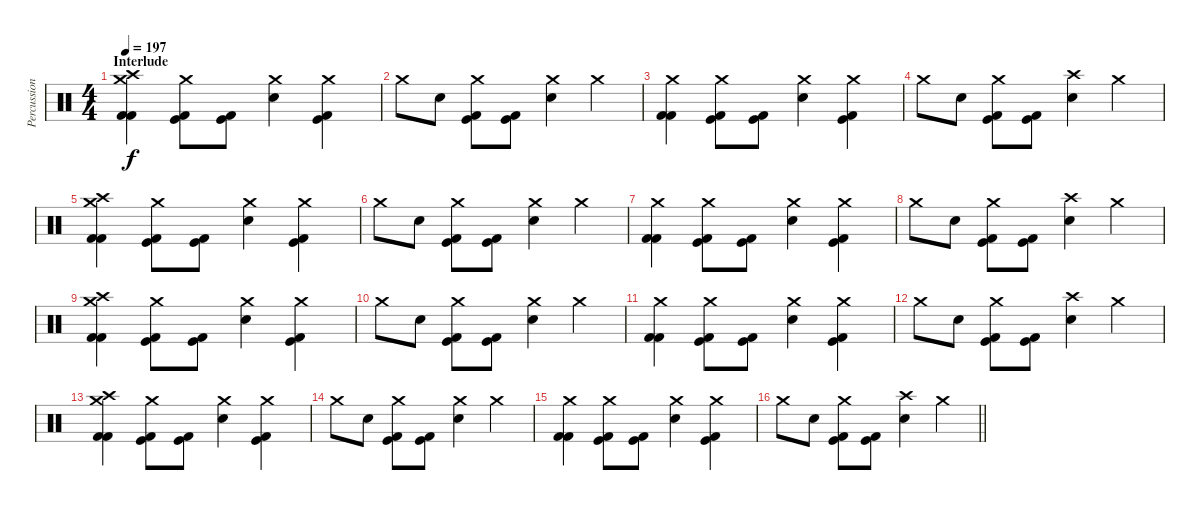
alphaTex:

\track ("Percussion" "Percussion") {instrument percussion}
\staff {score}
\articulation defaults
\ts (4 4)
\section ("" "Interlude")
\tempo 197
\clef neutral
\ks c
("Crash high (hit)" "Crash medium (hit)" "Kick (hit) 2" "Kick (hit) 2").4{dy f} ("Crash medium (hit)" "Kick (hit)" "Kick (hit) 2").8 ("Kick (hit)" "Kick (hit) 2").8 ("Crash medium (hit)" "Electric Snare (hit)").4 ("Crash medium (hit)" "Kick (hit)" "Kick (hit) 2").4 |
"Crash medium (hit)".8 "Electric Snare (hit)".8 ("Crash medium (hit)" "Kick (hit)" "Kick (hit) 2").8 ("Kick (hit)" "Kick (hit) 2").8 ("Crash medium (hit)" "Electric Snare (hit)").4 "Crash medium (hit)".4 |
("Crash medium (hit)" "Kick (hit) 2" "Kick (hit) 2").4 ("Crash medium (hit)" "Kick (hit)" "Kick (hit) 2").8 ("Kick (hit)" "Kick (hit) 2").8 ("Crash medium (hit)" "Electric Snare (hit)").4 ("Crash medium (hit)" "Kick (hit)" "Kick (hit) 2").4 |
"Crash medium (hit)".8 "Electric Snare (hit)".8 ("Crash medium (hit)" "Kick (hit)" "Kick (hit) 2").8 ("Kick (hit)" "Kick (hit) 2").8 ("Crash high (hit)" "Electric Snare (hit)").4 "Crash medium (hit)".4 |
("Crash high (hit)" "Crash medium (hit)" "Kick (hit) 2" "Kick (hit) 2").4 ("Crash medium (hit)" "Kick (hit)" "Kick (hit) 2").8 ("Kick (hit)" "Kick (hit) 2").8 ("Crash medium (hit)" "Electric Snare (hit)").4 ("Crash medium (hit)" "Kick (hit)" "Kick (hit) 2").4 |
"Crash medium (hit)".8 "Electric Snare (hit)".8 ("Crash medium (hit)" "Kick (hit)" "Kick (hit) 2").8 ("Kick (hit)" "Kick (hit) 2").8 ("Crash medium (hit)" "Electric Snare (hit)").4 "Crash medium (hit)".4 |
("Crash medium (hit)" "Kick (hit) 2" "Kick (hit) 2").4 ("Crash medium (hit)" "Kick (hit)" "Kick (hit) 2").8 ("Kick (hit)" "Kick (hit) 2").8 ("Crash medium (hit)" "Electric Snare (hit)").4 ("Crash medium (hit)" "Kick (hit)" "Kick (hit) 2").4 |
"Crash medium (hit)".8 "Electric Snare (hit)".8 ("Crash medium (hit)" "Kick (hit)" "Kick (hit) 2").8 ("Kick (hit)" "Kick (hit) 2").8 ("Crash high (hit)" "Electric Snare (hit)").4 "Crash medium (hit)".4 |
("Crash high (hit)" "Crash medium (hit)" "Kick (hit) 2" "Kick (hit) 2").4 ("Crash medium (hit)" "Kick (hit)" "Kick (hit) 2").8 ("Kick (hit)" "Kick (hit) 2").8 ("Crash medium (hit)" "Electric Snare (hit)").4 ("Crash medium (hit)" "Kick (hit)" "Kick (hit) 2").4 |
"Crash medium (hit)".8 "Electric Snare (hit)".8 ("Crash medium (hit)" "Kick (hit)" "Kick (hit) 2").8 ("Kick (hit)" "Kick (hit) 2").8 ("Crash medium (hit)" "Electric Snare (hit)").4 "Crash medium (hit)".4 |
("Crash medium (hit)" "Kick (hit) 2" "Kick (hit) 2").4 ("Crash medium (hit)" "Kick (hit)" "Kick (hit) 2").8 ("Kick (hit)" "Kick (hit) 2").8 ("Crash medium (hit)" "Electric Snare (hit)").4 ("Crash medium (hit)" "Kick (hit)" "Kick (hit) 2").4 |
"Crash medium (hit)".8 "Electric Snare (hit)".8 ("Crash medium (hit)" "Kick (hit)" "Kick (hit) 2").8 ("Kick (hit)" "Kick (hit) 2").8 ("Crash high (hit)" "Electric Snare (hit)").4 "Crash medium (hit)".4 |
("Crash high (hit)" "Crash medium (hit)" "Kick (hit) 2" "Kick (hit) 2").4 ("Crash medium (hit)" "Kick (hit)" "Kick (hit) 2").8 ("Kick (hit)" "Kick (hit) 2").8 ("Crash medium (hit)" "Electric Snare (hit)").4 ("Crash medium (hit)" "Kick (hit)" "Kick (hit) 2").4 |
"Crash medium (hit)".8 "Electric Snare (hit)".8 ("Crash medium (hit)" "Kick (hit)" "Kick (hit) 2").8 ("Kick (hit)" "Kick (hit) 2").8 ("Crash medium (hit)" "Electric Snare (hit)").4 "Crash medium (hit)".4 |
("Crash medium (hit)" "Kick (hit) 2" "Kick (hit) 2").4 ("Crash medium (hit)" "Kick (hit)" "Kick (hit) 2").8 ("Kick (hit)" "Kick (hit) 2").8 ("Crash medium (hit)" "Electric Snare (hit)").4 ("Crash medium (hit)" "Kick (hit)" "Kick (hit) 2").4 |
\barLineRight lightlight "Crash medium (hit)".8 "Electric Snare (hit)".8
("Crash medium (hit)" "Kick (hit)" "Kick (hit) 2").8 ("Kick (hit)" "Kick (hit) 2").8 ("Crash high (hit)" "Electric Snare (hit)").4 "Crash medium (hit)".4
